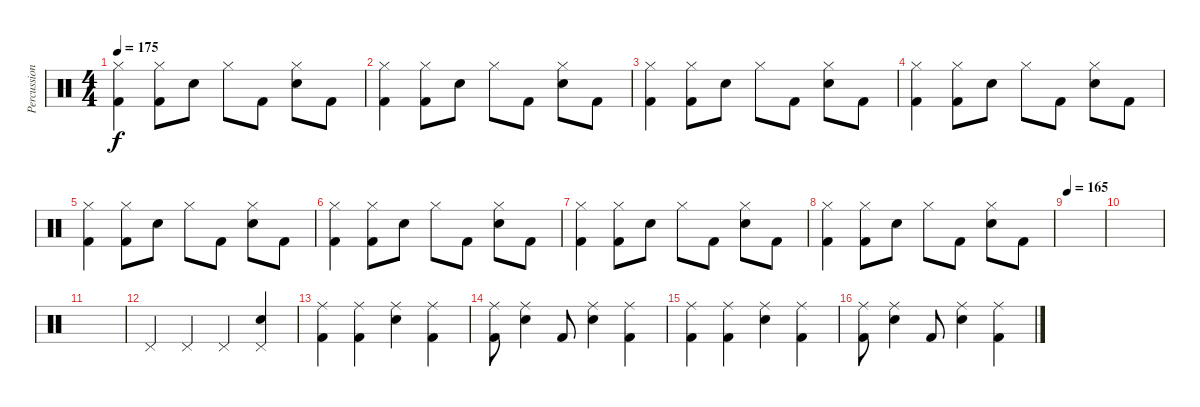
\track ("Percussion" "Percussion") {instrument percussion}
\staff {score}
\articulation defaults
\ts (4 4)
\tempo 175
\clef neutral
\ks c
("Hi-Hat (closed)" "Kick (hit) 2").4{dy f} ("Hi-Hat (closed)" "Kick (hit) 2").8 "Snare (hit) 2".8 "Hi-Hat (closed)".8 "Kick (hit) 2".8 ("Hi-Hat (closed)" "Snare (hit) 2").8 "Kick (hit) 2".8 |
("Hi-Hat (closed)" "Kick (hit) 2").4 ("Hi-Hat (closed)" "Kick (hit) 2").8 "Snare (hit) 2".8 "Hi-Hat (closed)".8 "Kick (hit) 2".8 ("Hi-Hat (closed)" "Snare (hit) 2").8 "Kick (hit) 2".8 |
("Hi-Hat (closed)" "Kick (hit) 2").4 ("Hi-Hat (closed)" "Kick (hit) 2").8 "Snare (hit) 2".8 "Hi-Hat (closed)".8 "Kick (hit) 2".8 ("Hi-Hat (closed)" "Snare (hit) 2").8 "Kick (hit) 2".8 |
("Hi-Hat (closed)" "Kick (hit) 2").4 ("Hi-Hat (closed)" "Kick (hit) 2").8 "Snare (hit) 2".8 "Hi-Hat (closed)".8 "Kick (hit) 2".8 ("Hi-Hat (closed)" "Snare (hit) 2").8 "Kick (hit) 2".8 |
("Hi-Hat (closed)" "Kick (hit) 2").4 ("Hi-Hat (closed)" "Kick (hit) 2").8 "Snare (hit) 2".8 "Hi-Hat (closed)".8 "Kick (hit) 2".8 ("Hi-Hat (closed)" "Snare (hit) 2").8 "Kick (hit) 2".8 |
("Hi-Hat (closed)" "Kick (hit) 2").4 ("Hi-Hat (closed)" "Kick (hit) 2").8 "Snare (hit) 2".8 "Hi-Hat (closed)".8 "Kick (hit) 2".8 ("Hi-Hat (closed)" "Snare (hit) 2").8 "Kick (hit) 2".8 |
("Hi-Hat (closed)" "Kick (hit) 2").4 ("Hi-Hat (closed)" "Kick (hit) 2").8 "Snare (hit) 2".8 "Hi-Hat (closed)".8 "Kick (hit) 2".8 ("Hi-Hat (closed)" "Snare (hit) 2").8 "Kick (hit) 2".8 |
("Hi-Hat (closed)" "Kick (hit) 2").4 ("Hi-Hat (closed)" "Kick (hit) 2").8 "Snare (hit) 2".8 "Hi-Hat (closed)".8 "Kick (hit) 2".8 ("Hi-Hat (closed)" "Snare (hit) 2").8 "Kick (hit) 2".8 |
\tempo 165
|
|
|
"Pedal Hi-Hat (hit)".4 "Pedal Hi-Hat (hit)".4 "Pedal Hi-Hat (hit)".4 ("Pedal Hi-Hat (hit)" "Snare (hit) 2").4 |
("Ride (middle)" "Kick (hit) 2").4 ("Ride (middle)" "Kick (hit) 2").4 ("Ride (middle)" "Snare (hit) 2").4 ("Ride (middle)" "Kick (hit) 2").4 |
("Ride (middle)" "Kick (hit) 2").8 ("Ride (middle)" "Snare (hit) 2").4 "Kick (hit) 2".8 ("Ride (middle)" "Snare (hit) 2").4 ("Ride (middle)" "Kick (hit) 2").4 |
("Ride (middle)" "Kick (hit) 2").4 ("Ride (middle)" "Kick (hit) 2").4 ("Ride (middle)" "Snare (hit) 2").4 ("Ride (middle)" "Kick (hit) 2").4 |
("Ride (middle)" "Kick (hit) 2").8 ("Ride (middle)" "Snare (hit) 2").4 "Kick (hit) 2".8 ("Ride (middle)" "Snare (hit) 2").4 ("Ride (middle)" "Kick (hit) 2").4
